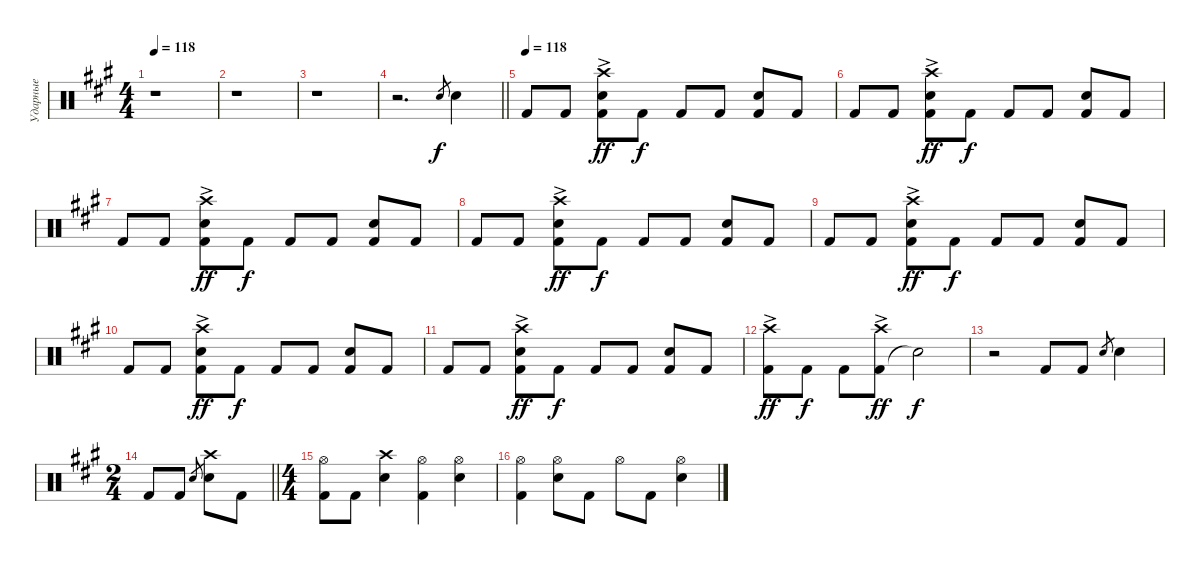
\track ("Ударные" "Ударные") {instrument percussion}
\staff {score}
\articulation defaults
\ts (4 4)
\tempo 118
\tempo 100
\tempo 118
\clef neutral
\ks a
r.1{dy f} |
r.1 |
r.1 |
\barLineRight lightlight
r.2{d} "Snare (hit) 2".8{gr} "Snare (hit) 2".4 |
\tempo (118)
"Kick (hit) 2".8 "Kick (hit) 2".8 ("Kick (hit) 2" "Snare (hit) 2" "Crash high (hit)"{ac}).8{dy ff} "Kick (hit) 2".8{dy f} "Kick (hit) 2".8 "Kick (hit) 2".8 ("Kick (hit) 2" "Snare (hit) 2").8 "Kick (hit) 2".8 |
"Kick (hit) 2".8 "Kick (hit) 2".8 ("Kick (hit) 2" "Snare (hit) 2" "Crash high (hit)"{ac}).8{dy ff} "Kick (hit) 2".8{dy f} "Kick (hit) 2".8 "Kick (hit) 2".8 ("Kick (hit) 2" "Snare (hit) 2").8 "Kick (hit) 2".8 |
"Kick (hit) 2".8 "Kick (hit) 2".8 ("Kick (hit) 2" "Snare (hit) 2" "Crash high (hit)"{ac}).8{dy ff} "Kick (hit) 2".8{dy f} "Kick (hit) 2".8 "Kick (hit) 2".8 ("Kick (hit) 2" "Snare (hit) 2").8 "Kick (hit) 2".8 |
"Kick (hit) 2".8 "Kick (hit) 2".8 ("Kick (hit) 2" "Snare (hit) 2" "Crash high (hit)"{ac}).8{dy ff} "Kick (hit) 2".8{dy f} "Kick (hit) 2".8 "Kick (hit) 2".8 ("Kick (hit) 2" "Snare (hit) 2").8 "Kick (hit) 2".8 |
"Kick (hit) 2".8 "Kick (hit) 2".8 ("Kick (hit) 2" "Snare (hit) 2" "Crash high (hit)"{ac}).8{dy ff} "Kick (hit) 2".8{dy f} "Kick (hit) 2".8 "Kick (hit) 2".8 ("Kick (hit) 2" "Snare (hit) 2").8 "Kick (hit) 2".8 |
"Kick (hit) 2".8 "Kick (hit) 2".8 ("Kick (hit) 2" "Snare (hit) 2" "Crash high (hit)"{ac}).8{dy ff} "Kick (hit) 2".8{dy f} "Kick (hit) 2".8 "Kick (hit) 2".8 ("Kick (hit) 2" "Snare (hit) 2").8 "Kick (hit) 2".8 |
"Kick (hit) 2".8 "Kick (hit) 2".8 ("Kick (hit) 2" "Snare (hit) 2" "Crash high (hit)"{ac}).8{dy ff} "Kick (hit) 2".8{dy f} "Kick (hit) 2".8 "Kick (hit) 2".8 ("Kick (hit) 2" "Snare (hit) 2").8 "Kick (hit) 2".8 |
("Kick (hit) 2" "Crash high (hit)"{ac}).8{dy ff} "Kick (hit) 2".8{dy f} "Kick (hit) 2".8 ("Kick (hit) 2" "Crash high (hit)"{ac}).8{dy ff} "Snare (hit)"{t}.2{dy f} |
r.2 "Kick (hit) 2".8 "Kick (hit) 2".8 "Snare (hit) 2".8{gr} "Snare (hit) 2".4 |
\ts (2 4)
\barLineRight lightlight "Kick (hit) 2".8 "Kick (hit) 2".8 "Snare (hit) 2".8{gr}
("Snare (hit) 2" "Crash high (hit)").8 "Kick (hit) 2".8 |
\ts (4 4)
("Kick (hit) 2" "Hi-Hat (open)").8 "Kick (hit) 2".8 ("Snare (hit) 2" "Crash high (hit)").4 ("Kick (hit) 2" "Hi-Hat (open)").4 ("Snare (hit) 2" "Hi-Hat (open)").4 |
("Kick (hit) 2" "Hi-Hat (open)").4 ("Snare (hit) 2" "Hi-Hat (open)").8 "Kick (hit) 2".8 "Hi-Hat (open)".8 "Kick (hit) 2".8 ("Snare (hit) 2" "Hi-Hat (open)").4
